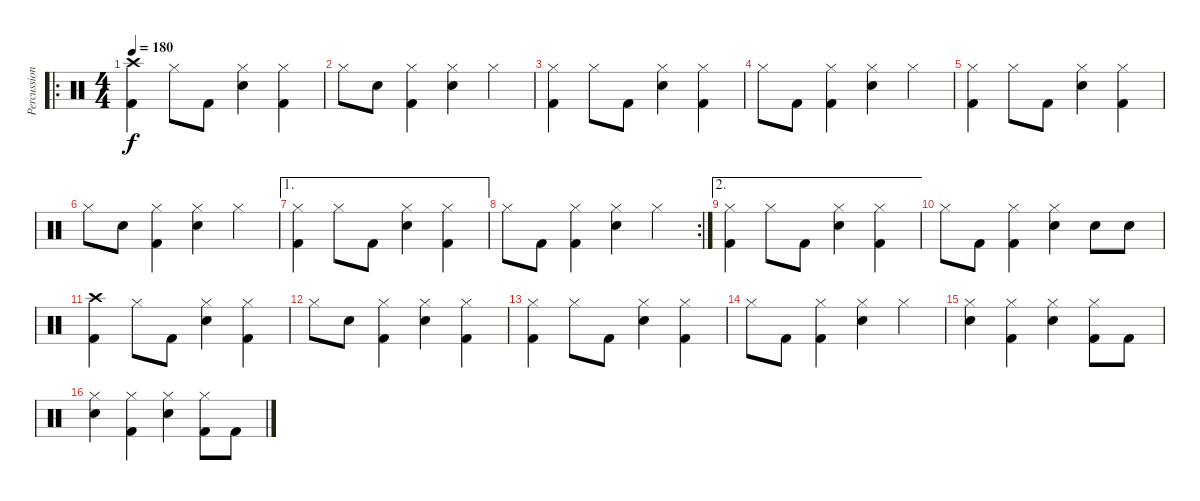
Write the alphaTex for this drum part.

\track ("Percussion" "Percussion") {instrument percussion}
\staff {score}
\articulation defaults
\ro
\ts (4 4)
\tempo 180
\clef neutral
\ks c
("Crash high (hit)" "Kick (hit) 2").4{dy f} "Hi-Hat (closed)".8 "Kick (hit) 2".8 ("Hi-Hat (closed)" "Electric Snare (hit)").4 ("Hi-Hat (closed)" "Kick (hit) 2").4 |
"Hi-Hat (closed)".8 "Electric Snare (hit)".8 ("Hi-Hat (closed)" "Kick (hit) 2").4 ("Hi-Hat (closed)" "Electric Snare (hit)").4 "Hi-Hat (closed)".4 |
("Hi-Hat (closed)" "Kick (hit) 2").4 "Hi-Hat (closed)".8 "Kick (hit) 2".8 ("Hi-Hat (closed)" "Electric Snare (hit)").4 ("Hi-Hat (closed)" "Kick (hit) 2").4 |
"Hi-Hat (closed)".8 "Kick (hit) 2".8 ("Hi-Hat (closed)" "Kick (hit) 2").4 ("Hi-Hat (closed)" "Electric Snare (hit)").4 "Hi-Hat (closed)".4 |
("Hi-Hat (closed)" "Kick (hit) 2").4 "Hi-Hat (closed)".8 "Kick (hit) 2".8 ("Hi-Hat (closed)" "Electric Snare (hit)").4 ("Hi-Hat (closed)" "Kick (hit) 2").4 |
"Hi-Hat (closed)".8 "Electric Snare (hit)".8 ("Hi-Hat (closed)" "Kick (hit) 2").4 ("Hi-Hat (closed)" "Electric Snare (hit)").4 "Hi-Hat (closed)".4 |
\ae 1
("Hi-Hat (closed)" "Kick (hit) 2").4 "Hi-Hat (closed)".8 "Kick (hit) 2".8 ("Hi-Hat (closed)" "Electric Snare (hit)").4 ("Hi-Hat (closed)" "Kick (hit) 2").4 |
\rc 2 "Hi-Hat (closed)".8 "Kick (hit) 2".8
("Hi-Hat (closed)" "Kick (hit) 2").4 ("Hi-Hat (closed)" "Electric Snare (hit)").4 "Hi-Hat (closed)".4 |
\ae 2
("Hi-Hat (closed)" "Kick (hit) 2").4 "Hi-Hat (closed)".8 "Kick (hit) 2".8 ("Hi-Hat (closed)" "Electric Snare (hit)").4 ("Hi-Hat (closed)" "Kick (hit) 2").4 |
"Hi-Hat (closed)".8 "Kick (hit) 2".8 ("Hi-Hat (closed)" "Kick (hit) 2").4 ("Hi-Hat (closed)" "Electric Snare (hit)").4 "Electric Snare (hit)".8 "Electric Snare (hit)".8 |
("Crash high (hit)" "Kick (hit) 2").4 "Hi-Hat (closed)".8 "Kick (hit) 2".8 ("Hi-Hat (closed)" "Electric Snare (hit)").4 ("Hi-Hat (closed)" "Kick (hit) 2").4 |
"Hi-Hat (closed)".8 "Electric Snare (hit)".8 ("Hi-Hat (closed)" "Kick (hit) 2").4 ("Hi-Hat (closed)" "Electric Snare (hit)").4 ("Hi-Hat (closed)" "Kick (hit) 2").4 |
("Hi-Hat (closed)" "Kick (hit) 2").4 "Hi-Hat (closed)".8 "Kick (hit) 2".8 ("Hi-Hat (closed)" "Electric Snare (hit)").4 ("Hi-Hat (closed)" "Kick (hit) 2").4 |
"Hi-Hat (closed)".8 "Kick (hit) 2".8 ("Hi-Hat (closed)" "Kick (hit) 2").4 ("Hi-Hat (closed)" "Electric Snare (hit)").4 "Hi-Hat (closed)".4 |
("Hi-Hat (closed)" "Electric Snare (hit)").4 ("Hi-Hat (closed)" "Kick (hit) 2").4 ("Hi-Hat (closed)" "Electric Snare (hit)").4 ("Hi-Hat (closed)" "Kick (hit) 2").8 "Kick (hit) 2".8 |
("Hi-Hat (closed)" "Electric Snare (hit)").4 ("Hi-Hat (closed)" "Kick (hit) 2").4 ("Hi-Hat (closed)" "Electric Snare (hit)").4 ("Hi-Hat (closed)" "Kick (hit) 2").8 "Kick (hit) 2".8
